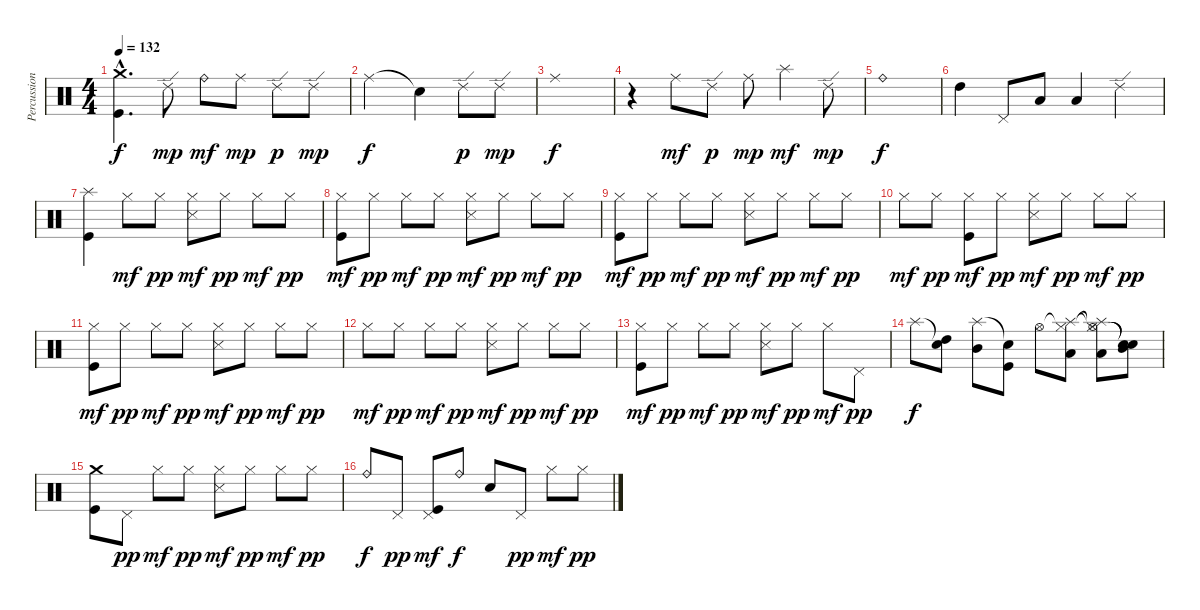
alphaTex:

\track ("Percussion" "Percussion") {instrument percussion}
\staff {score}
\articulation defaults
\ts (4 4)
\tempo 132
\clef neutral
\ks c
("Crash medium (hit)"{hac} "Kick (hit)"{hac}).4{d dy f} "Ride (edge) 2".8{dy mp} "Ride (bell)".8{dy mf} "Ride (middle)".8{dy mp} "Ride (edge) 2".8{dy p} "Ride (edge) 2".8{dy mp} |
"Ride (middle)".2{dy f} "Snare (hit)"{t}.4 "Ride (edge) 2".8{dy p} "Ride (edge) 2".8{dy mp} |
"Ride (middle)".1{dy f} |
r.4 "Ride (middle)".8{dy mf} "Ride (edge) 2".8{dy p} "Ride (middle)".8{dy mp} "Splash (hit)".4{dy mf} "Ride (edge) 2".8{dy mp} |
"Ride (bell)".1{dy f} |
"High Tom (hit)".4 "Pedal Hi-Hat (hit)".8 "Low Tom (hit)".8 "Low Tom (hit)".4 "Ride (edge) 2".4 |
("Splash (hit)" "Kick (hit)").4 "Hi-Hat (closed)".8{dy mf} "Hi-Hat (closed)".8{dy pp} ("Hi-Hat (closed)" "Snare (side stick) 3").8{dy mf} "Hi-Hat (closed)".8{dy pp} "Hi-Hat (closed)".8{dy mf} "Hi-Hat (closed)".8{dy pp} |
("Hi-Hat (closed)" "Kick (hit)").8{dy mf} "Hi-Hat (closed)".8{dy pp} "Hi-Hat (closed)".8{dy mf} "Hi-Hat (closed)".8{dy pp} ("Hi-Hat (closed)" "Snare (side stick) 3").8{dy mf} "Hi-Hat (closed)".8{dy pp} "Hi-Hat (closed)".8{dy mf} "Hi-Hat (closed)".8{dy pp} |
("Hi-Hat (closed)" "Kick (hit)").8{dy mf} "Hi-Hat (closed)".8{dy pp} "Hi-Hat (closed)".8{dy mf} "Hi-Hat (closed)".8{dy pp} ("Hi-Hat (closed)" "Snare (side stick) 3").8{dy mf} "Hi-Hat (closed)".8{dy pp} "Hi-Hat (closed)".8{dy mf} "Hi-Hat (closed)".8{dy pp} |
"Hi-Hat (closed)".8{dy mf} "Hi-Hat (closed)".8{dy pp} ("Hi-Hat (closed)" "Kick (hit)").8{dy mf} "Hi-Hat (closed)".8{dy pp} ("Hi-Hat (closed)" "Snare (side stick) 3").8{dy mf} "Hi-Hat (closed)".8{dy pp} "Hi-Hat (closed)".8{dy mf} "Hi-Hat (closed)".8{dy pp} |
("Hi-Hat (closed)" "Kick (hit)").8{dy mf} "Hi-Hat (closed)".8{dy pp} "Hi-Hat (closed)".8{dy mf} "Hi-Hat (closed)".8{dy pp} ("Hi-Hat (closed)" "Snare (side stick) 3").8{dy mf} "Hi-Hat (closed)".8{dy pp} "Hi-Hat (closed)".8{dy mf} "Hi-Hat (closed)".8{dy pp} |
"Hi-Hat (closed)".8{dy mf} "Hi-Hat (closed)".8{dy pp} "Hi-Hat (closed)".8{dy mf} "Hi-Hat (closed)".8{dy pp} ("Hi-Hat (closed)" "Snare (side stick) 3").8{dy mf} "Hi-Hat (closed)".8{dy pp} "Hi-Hat (closed)".8{dy mf} "Hi-Hat (closed)".8{dy pp} |
("Hi-Hat (closed)" "Kick (hit)").8{dy mf} "Hi-Hat (closed)".8{dy pp} "Hi-Hat (closed)".8{dy mf} "Hi-Hat (closed)".8{dy pp} ("Hi-Hat (closed)" "Snare (side stick) 3").8{dy mf} "Hi-Hat (closed)".8{dy pp} "Hi-Hat (closed)".8{dy mf} "Pedal Hi-Hat (hit)".8{dy pp} |
"Splash (hit)".8{dy f} ("Snare (hit)"{t} "High Tom (hit)").8 ("Splash (hit)" "Mid Tom (hit)").8 ("Snare (hit)"{t} "Kick (hit)").8 "Hi-Hat (open)".8 ("Hi-Hat (closed)"{t} "Splash (hit)" "Low Tom (hit)").8 ("Hi-Hat (closed)"{t} "Hi-Hat (open)"{t} "Splash (hit)" "Low Tom (hit)").8 ("Snare (hit)"{t} "Snare (hit)"{t} "Mid Tom (hit)").8 |
("Crash medium (hit)" "Kick (hit)").8 "Pedal Hi-Hat (hit)".8{dy pp} "Hi-Hat (closed)".8{dy mf} "Hi-Hat (closed)".8{dy pp} ("Hi-Hat (closed)" "Snare (side stick) 3").8{dy mf} "Hi-Hat (closed)".8{dy pp} "Hi-Hat (closed)".8{dy mf} "Hi-Hat (closed)".8{dy pp} |
"Ride (bell)".8{dy f} "Pedal Hi-Hat (hit)".8{dy pp} ("Pedal Hi-Hat (hit)" "Kick (hit)").8{dy mf} "Ride (bell)".8{dy f} "Snare (hit) 2".8 "Pedal Hi-Hat (hit)".8{dy pp} "Hi-Hat (closed)".8{dy mf} "Hi-Hat (closed)".8{dy pp}
